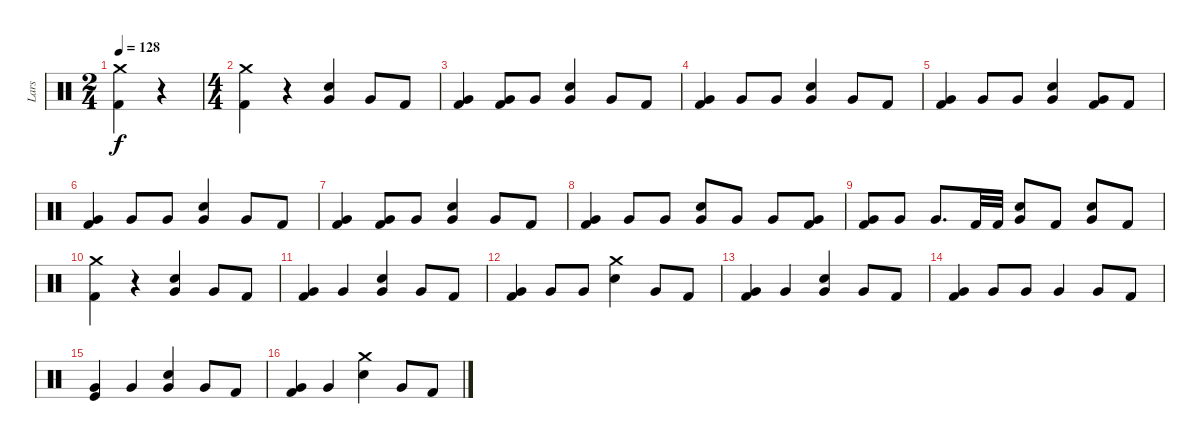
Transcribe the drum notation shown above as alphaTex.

\track ("Lars" "Lars") {instrument percussion}
\staff {score}
\articulation defaults
\ts (2 4)
\tempo 128
\clef neutral
\ks c
("Kick (hit) 2" "Crash medium (hit)").4{dy f} r.4 |
\ts (4 4)
("Kick (hit) 2" "Crash medium (hit)").4 r.4 ("Very Low Tom (hit)" "Snare (hit) 2").4 "Very Low Tom (hit)".8 "Kick (hit) 2".8 |
("Kick (hit) 2" "Very Low Tom (hit)").4 ("Kick (hit) 2" "Very Low Tom (hit)").8 "Very Low Tom (hit)".8 ("Snare (hit) 2" "Very Low Tom (hit)").4 "Very Low Tom (hit)".8 "Kick (hit) 2".8 |
("Kick (hit) 2" "Very Low Tom (hit)").4 "Very Low Tom (hit)".8 "Very Low Tom (hit)".8 ("Snare (hit) 2" "Very Low Tom (hit)").4 "Very Low Tom (hit)".8 "Kick (hit) 2".8 |
("Kick (hit) 2" "Very Low Tom (hit)").4 "Very Low Tom (hit)".8 "Very Low Tom (hit)".8 ("Snare (hit) 2" "Very Low Tom (hit)").4 ("Very Low Tom (hit)" "Kick (hit) 2").8 "Kick (hit) 2".8 |
("Kick (hit) 2" "Very Low Tom (hit)").4 "Very Low Tom (hit)".8 "Very Low Tom (hit)".8 ("Snare (hit) 2" "Very Low Tom (hit)").4 "Very Low Tom (hit)".8 "Kick (hit) 2".8 |
("Kick (hit) 2" "Very Low Tom (hit)").4 ("Kick (hit) 2" "Very Low Tom (hit)").8 "Very Low Tom (hit)".8 ("Snare (hit) 2" "Very Low Tom (hit)").4 "Very Low Tom (hit)".8 "Kick (hit) 2".8 |
("Kick (hit) 2" "Very Low Tom (hit)").4 "Very Low Tom (hit)".8 "Very Low Tom (hit)".8 ("Snare (hit) 2" "Very Low Tom (hit)").8 "Very Low Tom (hit)".8 "Very Low Tom (hit)".8 ("Kick (hit) 2" "Very Low Tom (hit)").8 |
("Kick (hit) 2" "Very Low Tom (hit)").8 "Very Low Tom (hit)".8 "Very Low Tom (hit)".8{d} "Kick (hit) 2".32 "Kick (hit) 2".32 ("Very Low Tom (hit)" "Snare (hit) 2").8 "Kick (hit) 2".8 ("Snare (hit) 2" "Very Low Tom (hit)").8 "Kick (hit) 2".8 |
("Kick (hit) 2" "Crash medium (hit)").4 r.4 ("Snare (hit) 2" "Very Low Tom (hit)").4 "Very Low Tom (hit)".8 "Kick (hit) 2".8 |
("Kick (hit) 2" "Very Low Tom (hit)").4 "Very Low Tom (hit)".4 ("Snare (hit) 2" "Very Low Tom (hit)").4 "Very Low Tom (hit)".8 "Kick (hit) 2".8 |
("Kick (hit) 2" "Very Low Tom (hit)").4 "Very Low Tom (hit)".8 "Very Low Tom (hit)".8 ("Crash medium (hit)" "Snare (hit) 2").4 "Very Low Tom (hit)".8 "Kick (hit) 2".8 |
("Kick (hit) 2" "Very Low Tom (hit)").4 "Very Low Tom (hit)".4 ("Snare (hit) 2" "Very Low Tom (hit)").4 "Very Low Tom (hit)".8 "Kick (hit) 2".8 |
("Very Low Tom (hit)" "Kick (hit) 2").4 "Very Low Tom (hit)".8 "Very Low Tom (hit)".8 "Very Low Tom (hit)".4 "Very Low Tom (hit)".8 "Kick (hit) 2".8 |
("Kick (hit)" "Very Low Tom (hit)").4 "Very Low Tom (hit)".4 ("Snare (hit) 2" "Very Low Tom (hit)").4 "Very Low Tom (hit)".8 "Kick (hit) 2".8 |
("Kick (hit) 2" "Very Low Tom (hit)").4 "Very Low Tom (hit)".4 ("Crash medium (hit)" "Snare (hit) 2").4 "Very Low Tom (hit)".8 "Kick (hit) 2".8
